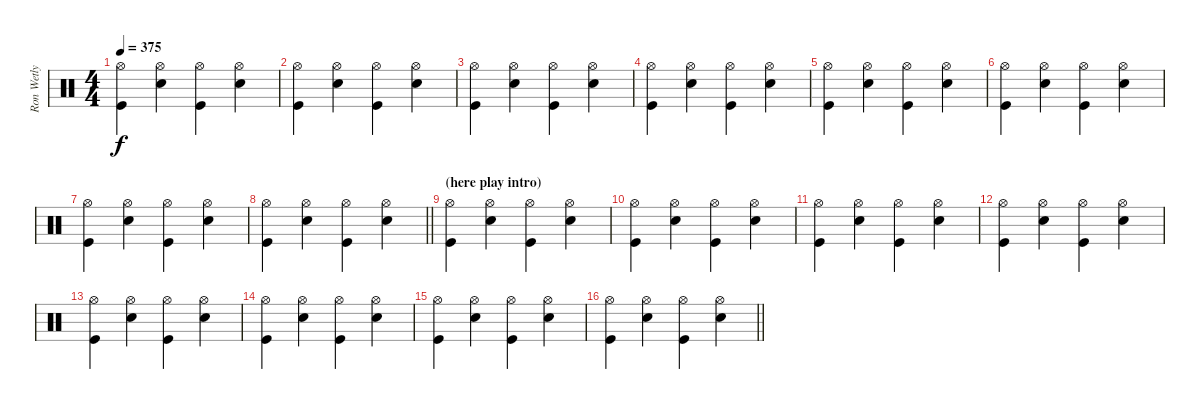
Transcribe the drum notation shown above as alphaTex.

\track ("Ron Wetly (Drums)" "Ron Wetly ") {instrument percussion}
\staff {score}
\articulation defaults
\ts (4 4)
\tempo 375
\clef neutral
\ks c
("Hi-Hat (open)" "Kick (hit)").4{dy f} ("Hi-Hat (open)" "Snare (hit) 2").4 ("Hi-Hat (open)" "Kick (hit)").4 ("Hi-Hat (open)" "Snare (hit) 2").4 |
("Hi-Hat (open)" "Kick (hit)").4 ("Hi-Hat (open)" "Snare (hit) 2").4 ("Hi-Hat (open)" "Kick (hit)").4 ("Hi-Hat (open)" "Snare (hit) 2").4 |
("Hi-Hat (open)" "Kick (hit)").4 ("Hi-Hat (open)" "Snare (hit) 2").4 ("Hi-Hat (open)" "Kick (hit)").4 ("Hi-Hat (open)" "Snare (hit) 2").4 |
("Hi-Hat (open)" "Kick (hit)").4 ("Hi-Hat (open)" "Snare (hit) 2").4 ("Hi-Hat (open)" "Kick (hit)").4 ("Hi-Hat (open)" "Snare (hit) 2").4 |
("Hi-Hat (open)" "Kick (hit)").4 ("Hi-Hat (open)" "Snare (hit) 2").4 ("Hi-Hat (open)" "Kick (hit)").4 ("Hi-Hat (open)" "Snare (hit) 2").4 |
("Hi-Hat (open)" "Kick (hit)").4 ("Hi-Hat (open)" "Snare (hit) 2").4 ("Hi-Hat (open)" "Kick (hit)").4 ("Hi-Hat (open)" "Snare (hit) 2").4 |
("Hi-Hat (open)" "Kick (hit)").4 ("Hi-Hat (open)" "Snare (hit) 2").4 ("Hi-Hat (open)" "Kick (hit)").4 ("Hi-Hat (open)" "Snare (hit) 2").4 |
\barLineRight lightlight
("Hi-Hat (open)" "Kick (hit)").4 ("Hi-Hat (open)" "Snare (hit) 2").4 ("Hi-Hat (open)" "Kick (hit)").4 ("Hi-Hat (open)" "Snare (hit) 2").4 |
\section ("" "(here play intro)")
("Hi-Hat (open)" "Kick (hit)").4 ("Hi-Hat (open)" "Snare (hit) 2").4 ("Hi-Hat (open)" "Kick (hit)").4 ("Hi-Hat (open)" "Snare (hit) 2").4 |
("Hi-Hat (open)" "Kick (hit)").4 ("Hi-Hat (open)" "Snare (hit) 2").4 ("Hi-Hat (open)" "Kick (hit)").4 ("Hi-Hat (open)" "Snare (hit) 2").4 |
("Hi-Hat (open)" "Kick (hit)").4 ("Hi-Hat (open)" "Snare (hit) 2").4 ("Hi-Hat (open)" "Kick (hit)").4 ("Hi-Hat (open)" "Snare (hit) 2").4 |
("Hi-Hat (open)" "Kick (hit)").4 ("Hi-Hat (open)" "Snare (hit) 2").4 ("Hi-Hat (open)" "Kick (hit)").4 ("Hi-Hat (open)" "Snare (hit) 2").4 |
("Hi-Hat (open)" "Kick (hit)").4 ("Hi-Hat (open)" "Snare (hit) 2").4 ("Hi-Hat (open)" "Kick (hit)").4 ("Hi-Hat (open)" "Snare (hit) 2").4 |
("Hi-Hat (open)" "Kick (hit)").4 ("Hi-Hat (open)" "Snare (hit) 2").4 ("Hi-Hat (open)" "Kick (hit)").4 ("Hi-Hat (open)" "Snare (hit) 2").4 |
("Hi-Hat (open)" "Kick (hit)").4 ("Hi-Hat (open)" "Snare (hit) 2").4 ("Hi-Hat (open)" "Kick (hit)").4 ("Hi-Hat (open)" "Snare (hit) 2").4 |
\barLineRight lightlight
("Hi-Hat (open)" "Kick (hit)").4 ("Hi-Hat (open)" "Snare (hit) 2").4 ("Hi-Hat (open)" "Kick (hit)").4 ("Hi-Hat (open)" "Snare (hit) 2").4
